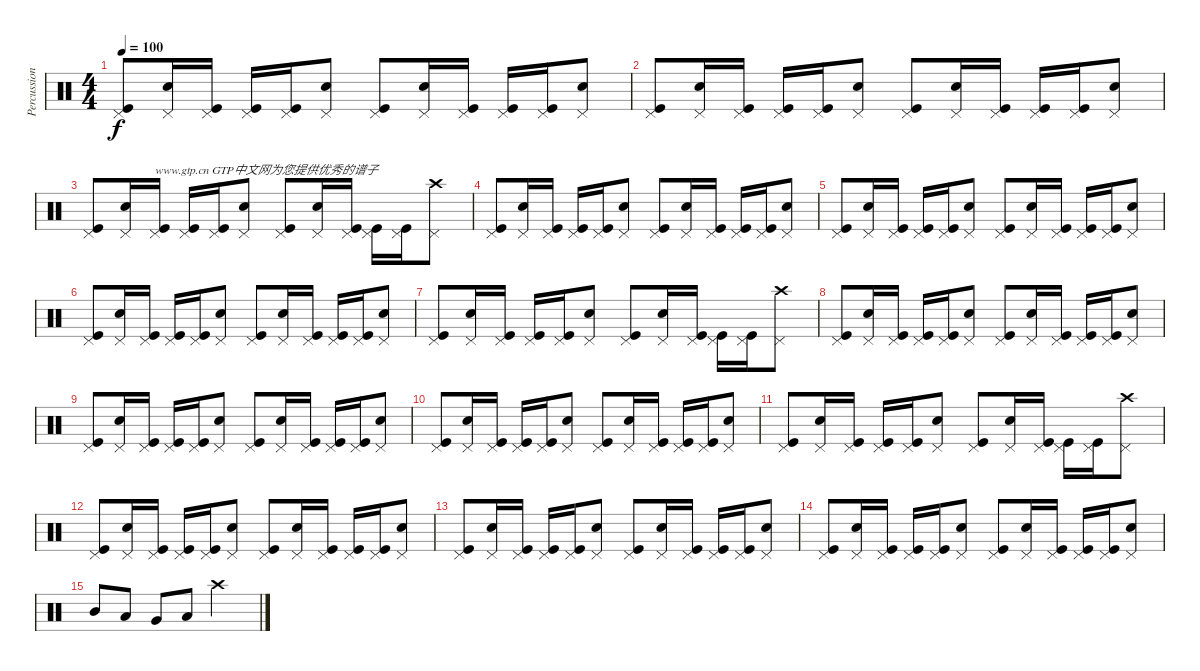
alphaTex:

\track ("Percussion" "Percussion") {instrument percussion}
\staff {score}
\articulation defaults
\ts (4 4)
\tempo 100
\clef neutral
\ks c
("Kick (hit)" "Pedal Hi-Hat (hit)").8{dy f} ("Snare (hit) 2" "Pedal Hi-Hat (hit)").16 ("Kick (hit)" "Pedal Hi-Hat (hit)").16 ("Kick (hit)" "Pedal Hi-Hat (hit)").16 ("Kick (hit)" "Pedal Hi-Hat (hit)").16 ("Snare (hit) 2" "Pedal Hi-Hat (hit)").8 ("Kick (hit)" "Pedal Hi-Hat (hit)").8 ("Snare (hit) 2" "Pedal Hi-Hat (hit)").16 ("Kick (hit)" "Pedal Hi-Hat (hit)").16 ("Kick (hit)" "Pedal Hi-Hat (hit)").16 ("Kick (hit)" "Pedal Hi-Hat (hit)").16 ("Snare (hit) 2" "Pedal Hi-Hat (hit)").8 |
("Kick (hit)" "Pedal Hi-Hat (hit)").8 ("Snare (hit) 2" "Pedal Hi-Hat (hit)").16 ("Kick (hit)" "Pedal Hi-Hat (hit)").16 ("Kick (hit)" "Pedal Hi-Hat (hit)").16 ("Kick (hit)" "Pedal Hi-Hat (hit)").16 ("Snare (hit) 2" "Pedal Hi-Hat (hit)").8 ("Kick (hit)" "Pedal Hi-Hat (hit)").8 ("Snare (hit) 2" "Pedal Hi-Hat (hit)").16 ("Kick (hit)" "Pedal Hi-Hat (hit)").16 ("Kick (hit)" "Pedal Hi-Hat (hit)").16 ("Kick (hit)" "Pedal Hi-Hat (hit)").16 ("Snare (hit) 2" "Pedal Hi-Hat (hit)").8 |
("Kick (hit)" "Pedal Hi-Hat (hit)").8 ("Snare (hit) 2" "Pedal Hi-Hat (hit)").16 ("Kick (hit)" "Pedal Hi-Hat (hit)").16{txt "www.gtp.cn GTP中文网为您提供优秀的谱子"} ("Kick (hit)" "Pedal Hi-Hat (hit)").16 ("Kick (hit)" "Pedal Hi-Hat (hit)").16 ("Snare (hit) 2" "Pedal Hi-Hat (hit)").8 ("Kick (hit)" "Pedal Hi-Hat (hit)").8 ("Snare (hit) 2" "Pedal Hi-Hat (hit)").16 ("Kick (hit)" "Pedal Hi-Hat (hit)").16 ("Kick (hit)" "Pedal Hi-Hat (hit)").16 ("Kick (hit)" "Pedal Hi-Hat (hit)").16 ("Crash high (hit)" "Pedal Hi-Hat (hit)").8 |
("Kick (hit)" "Pedal Hi-Hat (hit)").8 ("Snare (hit) 2" "Pedal Hi-Hat (hit)").16 ("Kick (hit)" "Pedal Hi-Hat (hit)").16 ("Kick (hit)" "Pedal Hi-Hat (hit)").16 ("Kick (hit)" "Pedal Hi-Hat (hit)").16 ("Snare (hit) 2" "Pedal Hi-Hat (hit)").8 ("Kick (hit)" "Pedal Hi-Hat (hit)").8 ("Snare (hit) 2" "Pedal Hi-Hat (hit)").16 ("Kick (hit)" "Pedal Hi-Hat (hit)").16 ("Kick (hit)" "Pedal Hi-Hat (hit)").16 ("Kick (hit)" "Pedal Hi-Hat (hit)").16 ("Snare (hit) 2" "Pedal Hi-Hat (hit)").8 |
("Kick (hit)" "Pedal Hi-Hat (hit)").8 ("Snare (hit) 2" "Pedal Hi-Hat (hit)").16 ("Kick (hit)" "Pedal Hi-Hat (hit)").16 ("Kick (hit)" "Pedal Hi-Hat (hit)").16 ("Kick (hit)" "Pedal Hi-Hat (hit)").16 ("Snare (hit) 2" "Pedal Hi-Hat (hit)").8 ("Kick (hit)" "Pedal Hi-Hat (hit)").8 ("Snare (hit) 2" "Pedal Hi-Hat (hit)").16 ("Kick (hit)" "Pedal Hi-Hat (hit)").16 ("Kick (hit)" "Pedal Hi-Hat (hit)").16 ("Kick (hit)" "Pedal Hi-Hat (hit)").16 ("Snare (hit) 2" "Pedal Hi-Hat (hit)").8 |
("Kick (hit)" "Pedal Hi-Hat (hit)").8 ("Snare (hit) 2" "Pedal Hi-Hat (hit)").16 ("Kick (hit)" "Pedal Hi-Hat (hit)").16 ("Kick (hit)" "Pedal Hi-Hat (hit)").16 ("Kick (hit)" "Pedal Hi-Hat (hit)").16 ("Snare (hit) 2" "Pedal Hi-Hat (hit)").8 ("Kick (hit)" "Pedal Hi-Hat (hit)").8 ("Snare (hit) 2" "Pedal Hi-Hat (hit)").16 ("Kick (hit)" "Pedal Hi-Hat (hit)").16 ("Kick (hit)" "Pedal Hi-Hat (hit)").16 ("Kick (hit)" "Pedal Hi-Hat (hit)").16 ("Snare (hit) 2" "Pedal Hi-Hat (hit)").8 |
("Kick (hit)" "Pedal Hi-Hat (hit)").8 ("Snare (hit) 2" "Pedal Hi-Hat (hit)").16 ("Kick (hit)" "Pedal Hi-Hat (hit)").16 ("Kick (hit)" "Pedal Hi-Hat (hit)").16 ("Kick (hit)" "Pedal Hi-Hat (hit)").16 ("Snare (hit) 2" "Pedal Hi-Hat (hit)").8 ("Kick (hit)" "Pedal Hi-Hat (hit)").8 ("Snare (hit) 2" "Pedal Hi-Hat (hit)").16 ("Kick (hit)" "Pedal Hi-Hat (hit)").16 ("Kick (hit)" "Pedal Hi-Hat (hit)").16 ("Kick (hit)" "Pedal Hi-Hat (hit)").16 ("Crash high (hit)" "Pedal Hi-Hat (hit)").8 |
("Kick (hit)" "Pedal Hi-Hat (hit)").8 ("Snare (hit) 2" "Pedal Hi-Hat (hit)").16 ("Kick (hit)" "Pedal Hi-Hat (hit)").16 ("Kick (hit)" "Pedal Hi-Hat (hit)").16 ("Kick (hit)" "Pedal Hi-Hat (hit)").16 ("Snare (hit) 2" "Pedal Hi-Hat (hit)").8 ("Kick (hit)" "Pedal Hi-Hat (hit)").8 ("Snare (hit) 2" "Pedal Hi-Hat (hit)").16 ("Kick (hit)" "Pedal Hi-Hat (hit)").16 ("Kick (hit)" "Pedal Hi-Hat (hit)").16 ("Kick (hit)" "Pedal Hi-Hat (hit)").16 ("Snare (hit) 2" "Pedal Hi-Hat (hit)").8 |
("Kick (hit)" "Pedal Hi-Hat (hit)").8 ("Snare (hit) 2" "Pedal Hi-Hat (hit)").16 ("Kick (hit)" "Pedal Hi-Hat (hit)").16 ("Kick (hit)" "Pedal Hi-Hat (hit)").16 ("Kick (hit)" "Pedal Hi-Hat (hit)").16 ("Snare (hit) 2" "Pedal Hi-Hat (hit)").8 ("Kick (hit)" "Pedal Hi-Hat (hit)").8 ("Snare (hit) 2" "Pedal Hi-Hat (hit)").16 ("Kick (hit)" "Pedal Hi-Hat (hit)").16 ("Kick (hit)" "Pedal Hi-Hat (hit)").16 ("Kick (hit)" "Pedal Hi-Hat (hit)").16 ("Snare (hit) 2" "Pedal Hi-Hat (hit)").8 |
("Kick (hit)" "Pedal Hi-Hat (hit)").8 ("Snare (hit) 2" "Pedal Hi-Hat (hit)").16 ("Kick (hit)" "Pedal Hi-Hat (hit)").16 ("Kick (hit)" "Pedal Hi-Hat (hit)").16 ("Kick (hit)" "Pedal Hi-Hat (hit)").16 ("Snare (hit) 2" "Pedal Hi-Hat (hit)").8 ("Kick (hit)" "Pedal Hi-Hat (hit)").8 ("Snare (hit) 2" "Pedal Hi-Hat (hit)").16 ("Kick (hit)" "Pedal Hi-Hat (hit)").16 ("Kick (hit)" "Pedal Hi-Hat (hit)").16 ("Kick (hit)" "Pedal Hi-Hat (hit)").16 ("Snare (hit) 2" "Pedal Hi-Hat (hit)").8 |
("Kick (hit)" "Pedal Hi-Hat (hit)").8 ("Snare (hit) 2" "Pedal Hi-Hat (hit)").16 ("Kick (hit)" "Pedal Hi-Hat (hit)").16 ("Kick (hit)" "Pedal Hi-Hat (hit)").16 ("Kick (hit)" "Pedal Hi-Hat (hit)").16 ("Snare (hit) 2" "Pedal Hi-Hat (hit)").8 ("Kick (hit)" "Pedal Hi-Hat (hit)").8 ("Snare (hit) 2" "Pedal Hi-Hat (hit)").16 ("Kick (hit)" "Pedal Hi-Hat (hit)").16 ("Kick (hit)" "Pedal Hi-Hat (hit)").16 ("Kick (hit)" "Pedal Hi-Hat (hit)").16 ("Crash high (hit)" "Pedal Hi-Hat (hit)").8 |
("Kick (hit)" "Pedal Hi-Hat (hit)").8 ("Snare (hit) 2" "Pedal Hi-Hat (hit)").16 ("Kick (hit)" "Pedal Hi-Hat (hit)").16 ("Kick (hit)" "Pedal Hi-Hat (hit)").16 ("Kick (hit)" "Pedal Hi-Hat (hit)").16 ("Snare (hit) 2" "Pedal Hi-Hat (hit)").8 ("Kick (hit)" "Pedal Hi-Hat (hit)").8 ("Snare (hit) 2" "Pedal Hi-Hat (hit)").16 ("Kick (hit)" "Pedal Hi-Hat (hit)").16 ("Kick (hit)" "Pedal Hi-Hat (hit)").16 ("Kick (hit)" "Pedal Hi-Hat (hit)").16 ("Snare (hit) 2" "Pedal Hi-Hat (hit)").8 |
("Kick (hit)" "Pedal Hi-Hat (hit)").8 ("Snare (hit) 2" "Pedal Hi-Hat (hit)").16 ("Kick (hit)" "Pedal Hi-Hat (hit)").16 ("Kick (hit)" "Pedal Hi-Hat (hit)").16 ("Kick (hit)" "Pedal Hi-Hat (hit)").16 ("Snare (hit) 2" "Pedal Hi-Hat (hit)").8 ("Kick (hit)" "Pedal Hi-Hat (hit)").8 ("Snare (hit) 2" "Pedal Hi-Hat (hit)").16 ("Kick (hit)" "Pedal Hi-Hat (hit)").16 ("Kick (hit)" "Pedal Hi-Hat (hit)").16 ("Kick (hit)" "Pedal Hi-Hat (hit)").16 ("Snare (hit) 2" "Pedal Hi-Hat (hit)").8 |
("Kick (hit)" "Pedal Hi-Hat (hit)").8 ("Snare (hit) 2" "Pedal Hi-Hat (hit)").16 ("Kick (hit)" "Pedal Hi-Hat (hit)").16 ("Kick (hit)" "Pedal Hi-Hat (hit)").16 ("Kick (hit)" "Pedal Hi-Hat (hit)").16 ("Snare (hit) 2" "Pedal Hi-Hat (hit)").8 ("Kick (hit)" "Pedal Hi-Hat (hit)").8 ("Snare (hit) 2" "Pedal Hi-Hat (hit)").16 ("Kick (hit)" "Pedal Hi-Hat (hit)").16 ("Kick (hit)" "Pedal Hi-Hat (hit)").16 ("Kick (hit)" "Pedal Hi-Hat (hit)").16 ("Snare (hit) 2" "Pedal Hi-Hat (hit)").8 |
"Mid Tom (hit)".8 "Low Tom (hit)".8 "Very Low Tom (hit)".8 "Low Floor Tom (hit)".8 "Crash high (hit)".2
